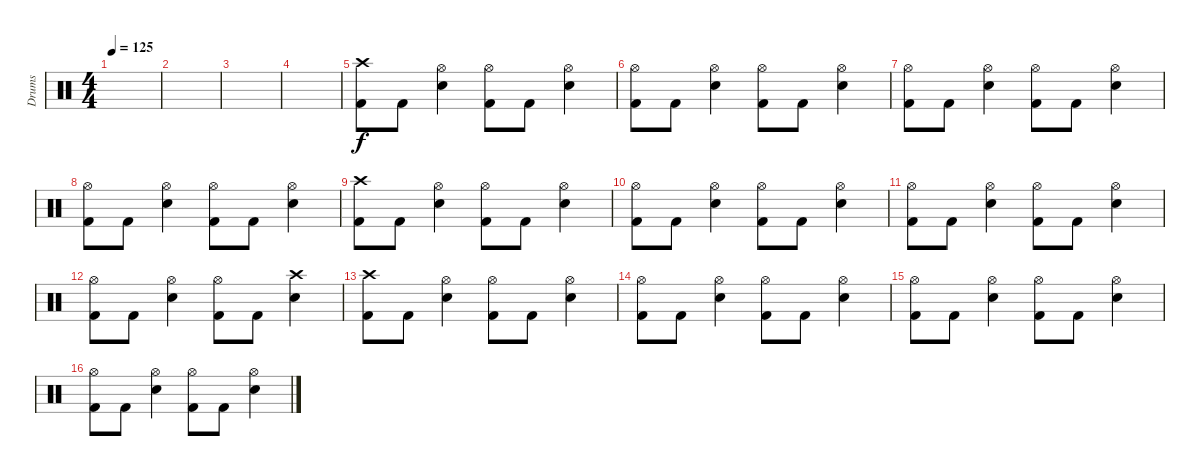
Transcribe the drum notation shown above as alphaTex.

\track ("Drums" "Drums") {instrument percussion}
\staff {score}
\articulation defaults
\ts (4 4)
\tempo 125
\clef neutral
\ks c
|
|
|
|
("Crash high (hit)" "Kick (hit) 2").8 "Kick (hit) 2".8 ("Hi-Hat (open)" "Snare (hit) 2").4 ("Hi-Hat (open)" "Kick (hit) 2").8 "Kick (hit) 2".8 ("Hi-Hat (open)" "Snare (hit) 2").4 |
("Hi-Hat (open)" "Kick (hit) 2").8 "Kick (hit) 2".8 ("Hi-Hat (open)" "Snare (hit) 2").4 ("Hi-Hat (open)" "Kick (hit) 2").8 "Kick (hit) 2".8 ("Hi-Hat (open)" "Snare (hit) 2").4 |
("Hi-Hat (open)" "Kick (hit) 2").8 "Kick (hit) 2".8 ("Hi-Hat (open)" "Snare (hit) 2").4 ("Hi-Hat (open)" "Kick (hit) 2").8 "Kick (hit) 2".8 ("Hi-Hat (open)" "Snare (hit) 2").4 |
("Hi-Hat (open)" "Kick (hit) 2").8 "Kick (hit) 2".8 ("Hi-Hat (open)" "Snare (hit) 2").4 ("Hi-Hat (open)" "Kick (hit) 2").8 "Kick (hit) 2".8 ("Hi-Hat (open)" "Snare (hit) 2").4 |
("Crash high (hit)" "Kick (hit) 2").8 "Kick (hit) 2".8 ("Hi-Hat (open)" "Snare (hit) 2").4 ("Hi-Hat (open)" "Kick (hit) 2").8 "Kick (hit) 2".8 ("Hi-Hat (open)" "Snare (hit) 2").4 |
("Hi-Hat (open)" "Kick (hit) 2").8 "Kick (hit) 2".8 ("Hi-Hat (open)" "Snare (hit) 2").4 ("Hi-Hat (open)" "Kick (hit) 2").8 "Kick (hit) 2".8 ("Hi-Hat (open)" "Snare (hit) 2").4 |
("Hi-Hat (open)" "Kick (hit) 2").8 "Kick (hit) 2".8 ("Hi-Hat (open)" "Snare (hit) 2").4 ("Hi-Hat (open)" "Kick (hit) 2").8 "Kick (hit) 2".8 ("Hi-Hat (open)" "Snare (hit) 2").4 |
("Hi-Hat (open)" "Kick (hit) 2").8 "Kick (hit) 2".8 ("Hi-Hat (open)" "Snare (hit) 2").4 ("Hi-Hat (open)" "Kick (hit) 2").8 "Kick (hit) 2".8 ("Crash high (hit)" "Snare (hit) 2").4 |
("Crash high (hit)" "Kick (hit) 2").8 "Kick (hit) 2".8 ("Hi-Hat (open)" "Snare (hit) 2").4 ("Hi-Hat (open)" "Kick (hit) 2").8 "Kick (hit) 2".8 ("Hi-Hat (open)" "Snare (hit) 2").4 |
("Hi-Hat (open)" "Kick (hit) 2").8 "Kick (hit) 2".8 ("Hi-Hat (open)" "Snare (hit) 2").4 ("Hi-Hat (open)" "Kick (hit) 2").8 "Kick (hit) 2".8 ("Hi-Hat (open)" "Snare (hit) 2").4 |
("Hi-Hat (open)" "Kick (hit) 2").8 "Kick (hit) 2".8 ("Hi-Hat (open)" "Snare (hit) 2").4 ("Hi-Hat (open)" "Kick (hit) 2").8 "Kick (hit) 2".8 ("Hi-Hat (open)" "Snare (hit) 2").4 |
("Hi-Hat (open)" "Kick (hit) 2").8 "Kick (hit) 2".8 ("Hi-Hat (open)" "Snare (hit) 2").4 ("Hi-Hat (open)" "Kick (hit) 2").8 "Kick (hit) 2".8 ("Hi-Hat (open)" "Snare (hit) 2").4
